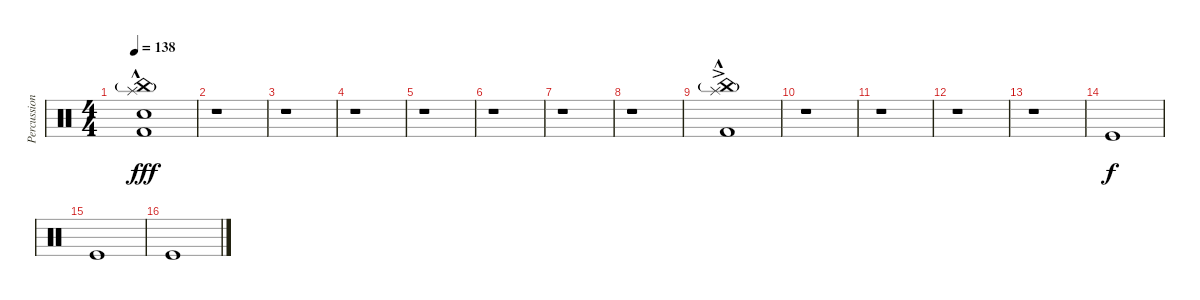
\track ("Percussions" "Percussion") {instrument percussion}
\staff {score}
\articulation defaults
\ts (4 4)
\tempo 138
\clef neutral
\ks c
("Splash (hit)" "China (hit)"{g} "Snare (hit) 2" "Kick (hit) 2"{hac}).1{dy fff} |
r.1 |
r.1 |
r.1 |
r.1 |
r.1 |
r.1 |
r.1 |
("Splash (hit)"{ac} "China (hit)"{g} "Kick (hit) 2"{hac}).1 |
r.1 |
r.1 |
r.1 |
r.1 |
"Kick (hit)".1{dy f} |
"Kick (hit)".1 |
"Kick (hit)".1
